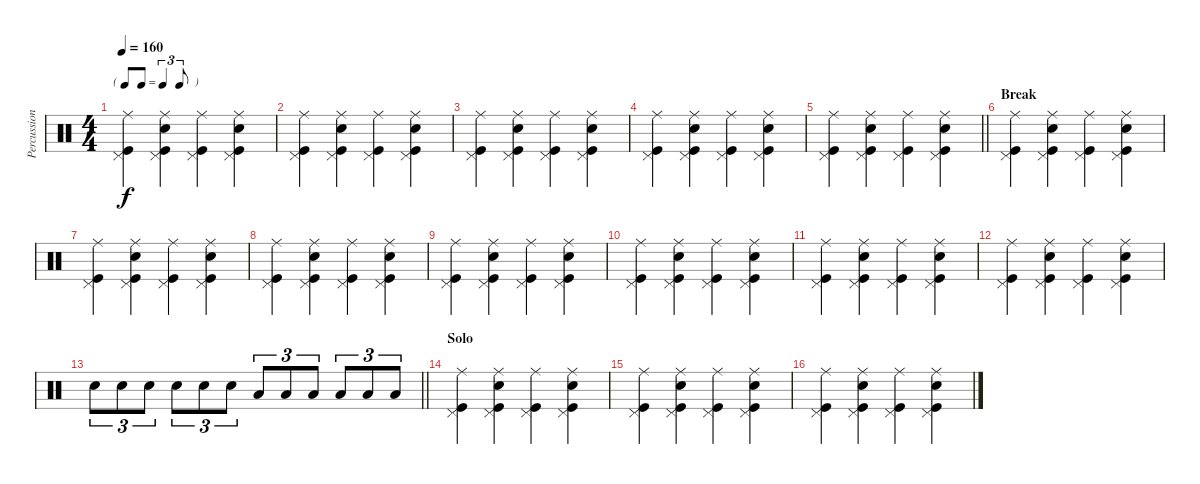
\track ("Percussion" "Percussion") {instrument percussion}
\staff {score}
\articulation defaults
\ts (4 4)
\tf triplet8th
\tempo 160
\clef neutral
\ks c
("Ride (middle)" "Pedal Hi-Hat (hit)" "Kick (hit)").4{dy f} ("Ride (middle)" "Pedal Hi-Hat (hit)" "Kick (hit)" "Snare (hit) 2").4 ("Ride (middle)" "Pedal Hi-Hat (hit)" "Kick (hit)").4 ("Ride (middle)" "Pedal Hi-Hat (hit)" "Kick (hit)" "Snare (hit) 2").4 |
("Ride (middle)" "Pedal Hi-Hat (hit)" "Kick (hit)").4 ("Ride (middle)" "Pedal Hi-Hat (hit)" "Kick (hit)" "Snare (hit) 2").4 ("Ride (middle)" "Pedal Hi-Hat (hit)" "Kick (hit)").4 ("Ride (middle)" "Pedal Hi-Hat (hit)" "Kick (hit)" "Snare (hit) 2").4 |
("Ride (middle)" "Pedal Hi-Hat (hit)" "Kick (hit)").4 ("Ride (middle)" "Pedal Hi-Hat (hit)" "Kick (hit)" "Snare (hit) 2").4 ("Ride (middle)" "Pedal Hi-Hat (hit)" "Kick (hit)").4 ("Ride (middle)" "Pedal Hi-Hat (hit)" "Kick (hit)" "Snare (hit) 2").4 |
("Ride (middle)" "Pedal Hi-Hat (hit)" "Kick (hit)").4 ("Ride (middle)" "Pedal Hi-Hat (hit)" "Kick (hit)" "Snare (hit) 2").4 ("Ride (middle)" "Pedal Hi-Hat (hit)" "Kick (hit)").4 ("Ride (middle)" "Pedal Hi-Hat (hit)" "Kick (hit)" "Snare (hit) 2").4 |
\barLineRight lightlight
("Ride (middle)" "Pedal Hi-Hat (hit)" "Kick (hit)").4 ("Ride (middle)" "Pedal Hi-Hat (hit)" "Kick (hit)" "Snare (hit) 2").4 ("Ride (middle)" "Pedal Hi-Hat (hit)" "Kick (hit)").4 ("Ride (middle)" "Pedal Hi-Hat (hit)" "Kick (hit)" "Snare (hit) 2").4 |
\section ("" "Break")
("Ride (middle)" "Pedal Hi-Hat (hit)" "Kick (hit)").4 ("Ride (middle)" "Pedal Hi-Hat (hit)" "Kick (hit)" "Snare (hit) 2").4 ("Ride (middle)" "Pedal Hi-Hat (hit)" "Kick (hit)").4 ("Ride (middle)" "Pedal Hi-Hat (hit)" "Kick (hit)" "Snare (hit) 2").4 |
("Ride (middle)" "Pedal Hi-Hat (hit)" "Kick (hit)").4 ("Ride (middle)" "Pedal Hi-Hat (hit)" "Kick (hit)" "Snare (hit) 2").4 ("Ride (middle)" "Pedal Hi-Hat (hit)" "Kick (hit)").4 ("Ride (middle)" "Pedal Hi-Hat (hit)" "Kick (hit)" "Snare (hit) 2").4 |
("Ride (middle)" "Pedal Hi-Hat (hit)" "Kick (hit)").4 ("Ride (middle)" "Pedal Hi-Hat (hit)" "Kick (hit)" "Snare (hit) 2").4 ("Ride (middle)" "Pedal Hi-Hat (hit)" "Kick (hit)").4 ("Ride (middle)" "Pedal Hi-Hat (hit)" "Kick (hit)" "Snare (hit) 2").4 |
("Ride (middle)" "Pedal Hi-Hat (hit)" "Kick (hit)").4 ("Ride (middle)" "Pedal Hi-Hat (hit)" "Kick (hit)" "Snare (hit) 2").4 ("Ride (middle)" "Pedal Hi-Hat (hit)" "Kick (hit)").4 ("Ride (middle)" "Pedal Hi-Hat (hit)" "Kick (hit)" "Snare (hit) 2").4 |
("Ride (middle)" "Pedal Hi-Hat (hit)" "Kick (hit)").4 ("Ride (middle)" "Pedal Hi-Hat (hit)" "Kick (hit)" "Snare (hit) 2").4 ("Ride (middle)" "Pedal Hi-Hat (hit)" "Kick (hit)").4 ("Ride (middle)" "Pedal Hi-Hat (hit)" "Kick (hit)" "Snare (hit) 2").4 |
("Ride (middle)" "Pedal Hi-Hat (hit)" "Kick (hit)").4 ("Ride (middle)" "Pedal Hi-Hat (hit)" "Kick (hit)" "Snare (hit) 2").4 ("Ride (middle)" "Pedal Hi-Hat (hit)" "Kick (hit)").4 ("Ride (middle)" "Pedal Hi-Hat (hit)" "Kick (hit)" "Snare (hit) 2").4 |
("Ride (middle)" "Pedal Hi-Hat (hit)" "Kick (hit)").4 ("Ride (middle)" "Pedal Hi-Hat (hit)" "Kick (hit)" "Snare (hit) 2").4 ("Ride (middle)" "Pedal Hi-Hat (hit)" "Kick (hit)").4 ("Ride (middle)" "Pedal Hi-Hat (hit)" "Kick (hit)" "Snare (hit) 2").4 |
\barLineRight lightlight "Snare (hit) 2".8{tu (3 2)} "Snare (hit) 2".8{tu (3 2)} "Snare (hit) 2".8{tu (3 2)} "Snare (hit) 2".8{tu (3 2)} "Snare (hit) 2".8{tu (3 2)} "Snare (hit) 2".8{tu (3 2)} "Low Floor Tom (hit)".8{tu (3 2)} "Low Floor Tom (hit)".8{tu (3 2)} "Low Floor Tom (hit)".8{tu (3 2)} "Low Floor Tom (hit)".8{tu (3 2)} "Low Floor Tom (hit)".8{tu (3 2)} "Low Floor Tom (hit)".8{tu (3 2)}
|
\section ("" "Solo")
("Ride (middle)" "Pedal Hi-Hat (hit)" "Kick (hit)").4 ("Ride (middle)" "Pedal Hi-Hat (hit)" "Kick (hit)" "Snare (hit) 2").4 ("Ride (middle)" "Pedal Hi-Hat (hit)" "Kick (hit)").4 ("Ride (middle)" "Pedal Hi-Hat (hit)" "Kick (hit)" "Snare (hit) 2").4 |
("Ride (middle)" "Pedal Hi-Hat (hit)" "Kick (hit)").4 ("Ride (middle)" "Pedal Hi-Hat (hit)" "Kick (hit)" "Snare (hit) 2").4 ("Ride (middle)" "Pedal Hi-Hat (hit)" "Kick (hit)").4 ("Ride (middle)" "Pedal Hi-Hat (hit)" "Kick (hit)" "Snare (hit) 2").4 |
("Ride (middle)" "Pedal Hi-Hat (hit)" "Kick (hit)").4 ("Ride (middle)" "Pedal Hi-Hat (hit)" "Kick (hit)" "Snare (hit) 2").4 ("Ride (middle)" "Pedal Hi-Hat (hit)" "Kick (hit)").4 ("Ride (middle)" "Pedal Hi-Hat (hit)" "Kick (hit)" "Snare (hit) 2").4
